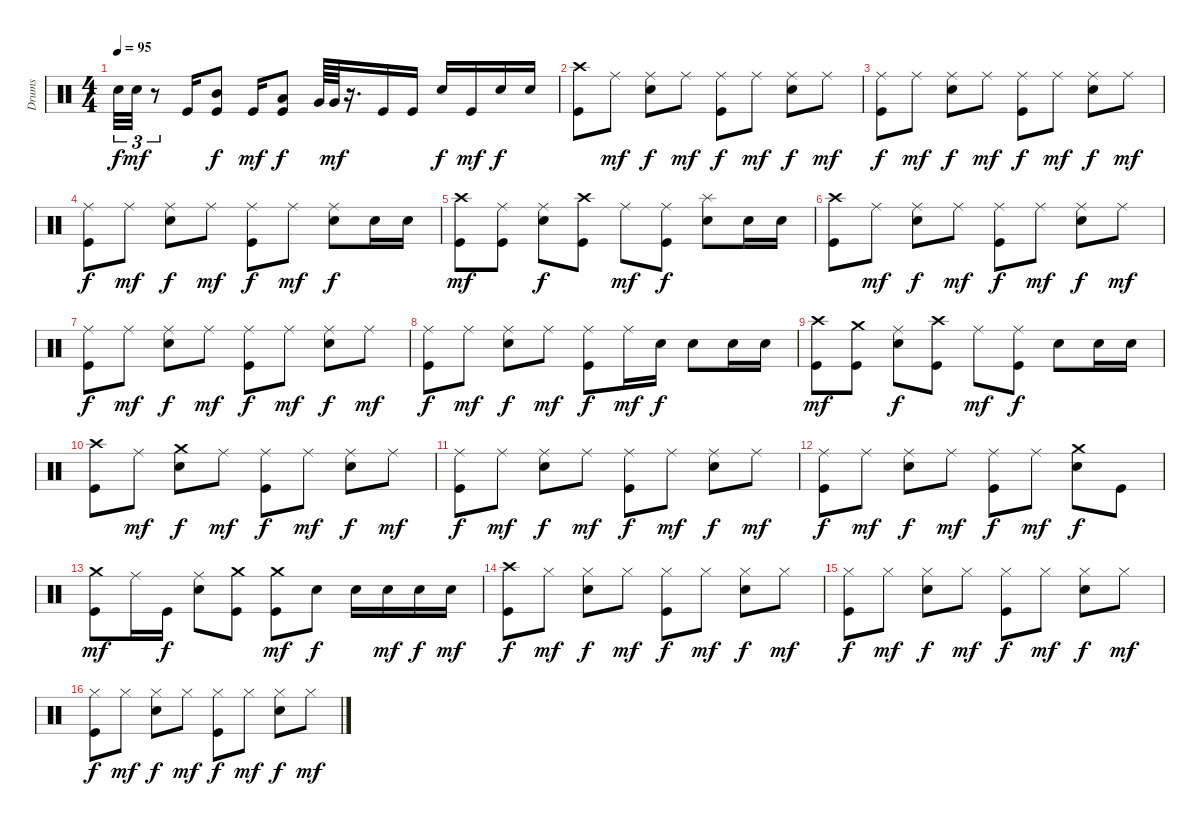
\track ("Drums" "Drums") {instrument percussion}
\staff {score}
\articulation defaults
\ts (4 4)
\tempo 95
\clef neutral
\ks c "Snare (hit) 2".32{tu (3 2) dy f} "Snare (hit) 2".32{tu (3 2) dy mf}
r.8{tu (3 2)} "Kick (hit)".16 ("Kick (hit)" "Mid Tom (hit)").8{dy f} "Kick (hit)".16{dy mf} ("Kick (hit)" "Low Tom (hit)").8{dy f} "Very Low Tom (hit)".64 "Very Low Tom (hit)".64{dy mf} r.16{d} "Kick (hit)".16 "Kick (hit)".16 "Snare (hit) 2".16{dy f} "Kick (hit)".16{dy mf} "Snare (hit) 2".16{dy f} "Snare (hit) 2".16 |
("Crash high (hit)" "Kick (hit)").8 "Ride (middle)".8{dy mf} ("Ride (middle)" "Snare (hit) 2").8{dy f} "Ride (middle)".8{dy mf} ("Ride (middle)" "Kick (hit)").8{dy f} "Ride (middle)".8{dy mf} ("Ride (middle)" "Snare (hit) 2").8{dy f} "Ride (middle)".8{dy mf} |
("Ride (middle)" "Kick (hit)").8{dy f} "Ride (middle)".8{dy mf} ("Ride (middle)" "Snare (hit) 2").8{dy f} "Ride (middle)".8{dy mf} ("Ride (middle)" "Kick (hit)").8{dy f} "Ride (middle)".8{dy mf} ("Ride (middle)" "Snare (hit) 2").8{dy f} "Ride (middle)".8{dy mf} |
("Ride (middle)" "Kick (hit)").8{dy f} "Ride (middle)".8{dy mf} ("Ride (middle)" "Snare (hit) 2").8{dy f} "Ride (middle)".8{dy mf} ("Ride (middle)" "Kick (hit)").8{dy f} "Ride (middle)".8{dy mf} ("Ride (middle)" "Snare (hit) 2").8{dy f} "Snare (hit) 2".16 "Snare (hit) 2".16 |
("Crash high (hit)" "Kick (hit)").8{dy mf} ("Ride (middle)" "Kick (hit)").8 ("Ride (middle)" "Snare (hit) 2").8{dy f} ("Crash high (hit)" "Kick (hit)").8 "Ride (middle)".8{dy mf} ("Ride (middle)" "Kick (hit)").8{dy f} ("Splash (hit)" "Snare (hit) 2").8 "Snare (hit) 2".16 "Snare (hit) 2".16 |
("Crash high (hit)" "Kick (hit)").8 "Ride (middle)".8{dy mf} ("Ride (middle)" "Snare (hit) 2").8{dy f} "Ride (middle)".8{dy mf} ("Ride (middle)" "Kick (hit)").8{dy f} "Ride (middle)".8{dy mf} ("Ride (middle)" "Snare (hit) 2").8{dy f} "Ride (middle)".8{dy mf} |
("Ride (middle)" "Kick (hit)").8{dy f} "Ride (middle)".8{dy mf} ("Ride (middle)" "Snare (hit) 2").8{dy f} "Ride (middle)".8{dy mf} ("Ride (middle)" "Kick (hit)").8{dy f} "Ride (middle)".8{dy mf} ("Ride (middle)" "Snare (hit) 2").8{dy f} "Ride (middle)".8{dy mf} |
("Ride (middle)" "Kick (hit)").8{dy f} "Ride (middle)".8{dy mf} ("Ride (middle)" "Snare (hit) 2").8{dy f} "Ride (middle)".8{dy mf} ("Ride (middle)" "Kick (hit)").8{dy f} "Ride (middle)".16{dy mf} "Snare (hit) 2".16{dy f} "Snare (hit) 2".8 "Snare (hit) 2".16 "Snare (hit) 2".16 |
("Crash high (hit)" "Kick (hit)").8{dy mf} ("Crash medium (hit)" "Kick (hit)").8 ("Ride (middle)" "Snare (hit) 2").8{dy f} ("Crash high (hit)" "Kick (hit)").8 "Ride (middle)".8{dy mf} ("Ride (middle)" "Kick (hit)").8{dy f} "Snare (hit) 2".8 "Snare (hit) 2".16 "Snare (hit) 2".16 |
("Crash high (hit)" "Kick (hit)").8 "Ride (middle)".8{dy mf} ("Crash medium (hit)" "Snare (hit) 2").8{dy f} "Ride (middle)".8{dy mf} ("Ride (middle)" "Kick (hit)").8{dy f} "Ride (middle)".8{dy mf} ("Ride (middle)" "Snare (hit) 2").8{dy f} "Ride (middle)".8{dy mf} |
("Ride (middle)" "Kick (hit)").8{dy f} "Ride (middle)".8{dy mf} ("Ride (middle)" "Snare (hit) 2").8{dy f} "Ride (middle)".8{dy mf} ("Ride (middle)" "Kick (hit)").8{dy f} "Ride (middle)".8{dy mf} ("Ride (middle)" "Snare (hit) 2").8{dy f} "Ride (middle)".8{dy mf} |
("Ride (middle)" "Kick (hit)").8{dy f} "Ride (middle)".8{dy mf} ("Ride (middle)" "Snare (hit) 2").8{dy f} "Ride (middle)".8{dy mf} ("Ride (middle)" "Kick (hit)").8{dy f} "Ride (middle)".8{dy mf} ("Crash medium (hit)" "Snare (hit) 2").8{dy f} "Kick (hit)".8 |
("Crash medium (hit)" "Kick (hit)").8{dy mf} "Ride (middle)".16 "Kick (hit)".16{dy f} ("Ride (middle)" "Snare (hit) 2").8 ("Crash medium (hit)" "Kick (hit)").8 ("Crash medium (hit)" "Kick (hit)").8{dy mf} "Snare (hit) 2".8{dy f} "Snare (hit) 2".16 "Snare (hit) 2".16{dy mf} "Snare (hit) 2".16{dy f} "Snare (hit) 2".16{dy mf} |
("Crash high (hit)" "Kick (hit)").8{dy f} "Hi-Hat (closed)".8{dy mf} ("Hi-Hat (closed)" "Snare (hit) 2").8{dy f} "Hi-Hat (closed)".8{dy mf} ("Hi-Hat (closed)" "Kick (hit)").8{dy f} "Hi-Hat (closed)".8{dy mf} ("Hi-Hat (closed)" "Snare (hit) 2").8{dy f} "Hi-Hat (closed)".8{dy mf} |
("Hi-Hat (closed)" "Kick (hit)").8{dy f} "Hi-Hat (closed)".8{dy mf} ("Hi-Hat (closed)" "Snare (hit) 2").8{dy f} "Hi-Hat (closed)".8{dy mf} ("Hi-Hat (closed)" "Kick (hit)").8{dy f} "Hi-Hat (closed)".8{dy mf} ("Hi-Hat (closed)" "Snare (hit) 2").8{dy f} "Hi-Hat (closed)".8{dy mf} |
("Hi-Hat (closed)" "Kick (hit)").8{dy f} "Hi-Hat (closed)".8{dy mf} ("Hi-Hat (closed)" "Snare (hit) 2").8{dy f} "Hi-Hat (closed)".8{dy mf} ("Hi-Hat (closed)" "Kick (hit)").8{dy f} "Hi-Hat (closed)".8{dy mf} ("Hi-Hat (closed)" "Snare (hit) 2").8{dy f} "Hi-Hat (closed)".8{dy mf}
